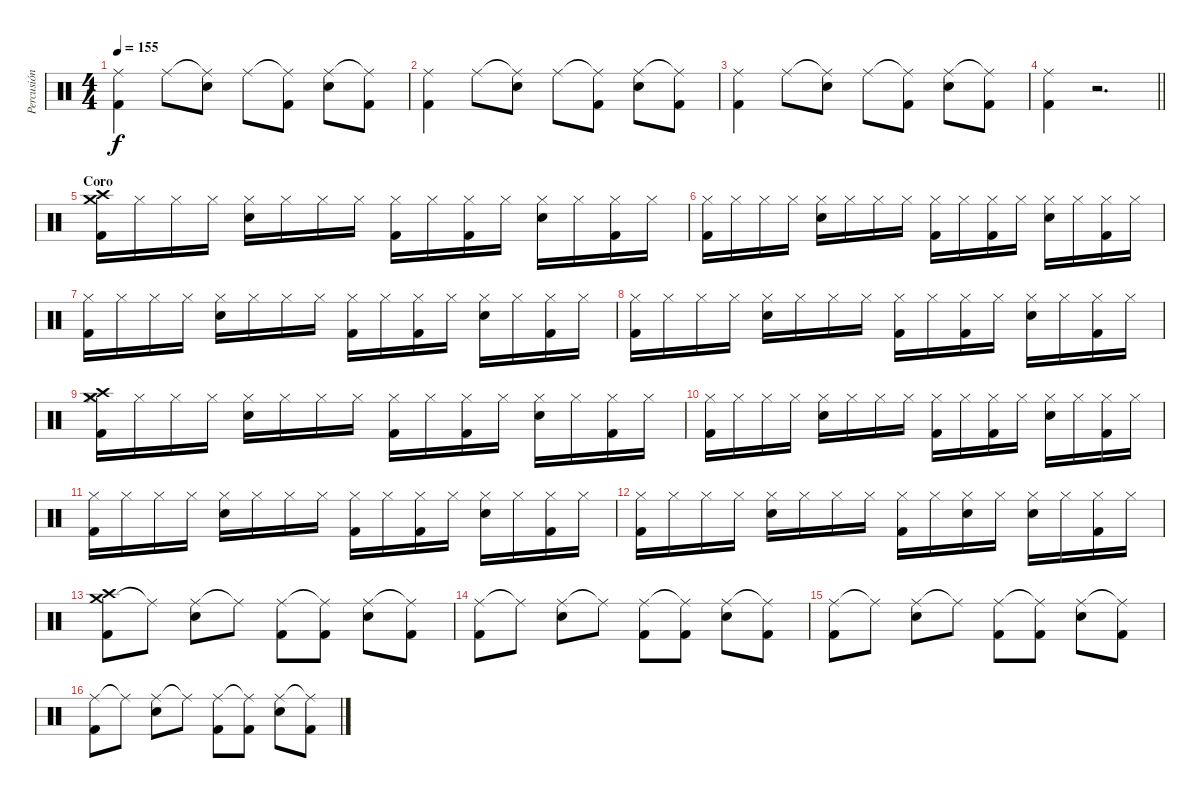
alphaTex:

\track ("Percusión" "Percusión") {instrument percussion}
\staff {score}
\articulation defaults
\ts (4 4)
\tempo 155
\clef neutral
\ks c
("Ride (middle)" "Kick (hit) 2").4{dy f} "Ride (middle)".8 ("Ride (middle)"{t} "Electric Snare (hit)").8 "Ride (middle)".8 ("Ride (middle)"{t} "Kick (hit) 2").8 ("Ride (middle)" "Electric Snare (hit)").8 ("Ride (middle)"{t} "Kick (hit) 2").8 |
("Ride (middle)" "Kick (hit) 2").4 "Ride (middle)".8 ("Ride (middle)"{t} "Electric Snare (hit)").8 "Ride (middle)".8 ("Ride (middle)"{t} "Kick (hit) 2").8 ("Ride (middle)" "Electric Snare (hit)").8 ("Ride (middle)"{t} "Kick (hit) 2").8 |
("Ride (middle)" "Kick (hit) 2").4 "Ride (middle)".8 ("Ride (middle)"{t} "Electric Snare (hit)").8 "Ride (middle)".8 ("Ride (middle)"{t} "Kick (hit) 2").8 ("Ride (middle)" "Electric Snare (hit)").8 ("Ride (middle)"{t} "Kick (hit) 2").8 |
\barLineRight lightlight
("Ride (middle)" "Kick (hit) 2").4 r.2{d} |
\section ("" "Coro")
("Crash high (hit)" "Crash medium (hit)" "Kick (hit) 2").16 "Hi-Hat (closed)".16 "Hi-Hat (closed)".16 "Hi-Hat (closed)".16 ("Hi-Hat (closed)" "Electric Snare (hit)").16 "Hi-Hat (closed)".16 "Hi-Hat (closed)".16 "Hi-Hat (closed)".16 ("Hi-Hat (closed)" "Kick (hit) 2").16 "Hi-Hat (closed)".16 ("Hi-Hat (closed)" "Kick (hit) 2").16 "Hi-Hat (closed)".16 ("Hi-Hat (closed)" "Electric Snare (hit)").16 "Hi-Hat (closed)".16 ("Hi-Hat (closed)" "Kick (hit) 2").16 "Hi-Hat (closed)".16 |
("Hi-Hat (closed)" "Kick (hit) 2").16 "Hi-Hat (closed)".16 "Hi-Hat (closed)".16 "Hi-Hat (closed)".16 ("Hi-Hat (closed)" "Electric Snare (hit)").16 "Hi-Hat (closed)".16 "Hi-Hat (closed)".16 "Hi-Hat (closed)".16 ("Hi-Hat (closed)" "Kick (hit) 2").16 "Hi-Hat (closed)".16 ("Hi-Hat (closed)" "Kick (hit) 2").16 "Hi-Hat (closed)".16 ("Hi-Hat (closed)" "Electric Snare (hit)").16 "Hi-Hat (closed)".16 ("Hi-Hat (closed)" "Kick (hit) 2").16 "Hi-Hat (closed)".16 |
("Hi-Hat (closed)" "Kick (hit) 2").16 "Hi-Hat (closed)".16 "Hi-Hat (closed)".16 "Hi-Hat (closed)".16 ("Hi-Hat (closed)" "Electric Snare (hit)").16 "Hi-Hat (closed)".16 "Hi-Hat (closed)".16 "Hi-Hat (closed)".16 ("Hi-Hat (closed)" "Kick (hit) 2").16 "Hi-Hat (closed)".16 ("Hi-Hat (closed)" "Kick (hit) 2").16 "Hi-Hat (closed)".16 ("Hi-Hat (closed)" "Electric Snare (hit)").16 "Hi-Hat (closed)".16 ("Hi-Hat (closed)" "Kick (hit) 2").16 "Hi-Hat (closed)".16 |
("Hi-Hat (closed)" "Kick (hit) 2").16 "Hi-Hat (closed)".16 "Hi-Hat (closed)".16 "Hi-Hat (closed)".16 ("Hi-Hat (closed)" "Electric Snare (hit)").16 "Hi-Hat (closed)".16 "Hi-Hat (closed)".16 "Hi-Hat (closed)".16 ("Hi-Hat (closed)" "Kick (hit) 2").16 "Hi-Hat (closed)".16 ("Hi-Hat (closed)" "Kick (hit) 2").16 "Hi-Hat (closed)".16 ("Hi-Hat (closed)" "Electric Snare (hit)").16 "Hi-Hat (closed)".16 ("Hi-Hat (closed)" "Kick (hit) 2").16 "Hi-Hat (closed)".16 |
("Crash medium (hit)" "Hi-Hat (closed)" "Crash high (hit)" "Kick (hit) 2").16 "Hi-Hat (closed)".16 "Hi-Hat (closed)".16 "Hi-Hat (closed)".16 ("Hi-Hat (closed)" "Electric Snare (hit)").16 "Hi-Hat (closed)".16 "Hi-Hat (closed)".16 "Hi-Hat (closed)".16 ("Hi-Hat (closed)" "Kick (hit) 2").16 "Hi-Hat (closed)".16 ("Hi-Hat (closed)" "Kick (hit) 2").16 "Hi-Hat (closed)".16 ("Hi-Hat (closed)" "Electric Snare (hit)").16 "Hi-Hat (closed)".16 ("Hi-Hat (closed)" "Kick (hit) 2").16 "Hi-Hat (closed)".16 |
("Hi-Hat (closed)" "Kick (hit) 2").16 "Hi-Hat (closed)".16 "Hi-Hat (closed)".16 "Hi-Hat (closed)".16 ("Hi-Hat (closed)" "Electric Snare (hit)").16 "Hi-Hat (closed)".16 "Hi-Hat (closed)".16 "Hi-Hat (closed)".16 ("Hi-Hat (closed)" "Kick (hit) 2").16 "Hi-Hat (closed)".16 ("Hi-Hat (closed)" "Kick (hit) 2").16 "Hi-Hat (closed)".16 ("Hi-Hat (closed)" "Electric Snare (hit)").16 "Hi-Hat (closed)".16 ("Hi-Hat (closed)" "Kick (hit) 2").16 "Hi-Hat (closed)".16 |
("Hi-Hat (closed)" "Kick (hit) 2").16 "Hi-Hat (closed)".16 "Hi-Hat (closed)".16 "Hi-Hat (closed)".16 ("Hi-Hat (closed)" "Electric Snare (hit)").16 "Hi-Hat (closed)".16 "Hi-Hat (closed)".16 "Hi-Hat (closed)".16 ("Hi-Hat (closed)" "Kick (hit) 2").16 "Hi-Hat (closed)".16 ("Hi-Hat (closed)" "Kick (hit) 2").16 "Hi-Hat (closed)".16 ("Hi-Hat (closed)" "Electric Snare (hit)").16 "Hi-Hat (closed)".16 ("Hi-Hat (closed)" "Kick (hit) 2").16 "Hi-Hat (closed)".16 |
("Hi-Hat (closed)" "Kick (hit) 2").16 "Hi-Hat (closed)".16 "Hi-Hat (closed)".16 "Hi-Hat (closed)".16 ("Hi-Hat (closed)" "Electric Snare (hit)").16 "Hi-Hat (closed)".16 "Hi-Hat (closed)".16 "Hi-Hat (closed)".16 ("Hi-Hat (closed)" "Kick (hit) 2").16 "Hi-Hat (closed)".16 ("Hi-Hat (closed)" "Electric Snare (hit)").16 "Hi-Hat (closed)".16 ("Hi-Hat (closed)" "Electric Snare (hit)").16 "Hi-Hat (closed)".16 ("Hi-Hat (closed)" "Kick (hit) 2").16 "Hi-Hat (closed)".16 |
("Crash medium (hit)" "Crash high (hit)" "Kick (hit) 2").8 "Ride (middle)"{t}.8 ("Ride (middle)" "Electric Snare (hit)").8 "Ride (middle)"{t}.8 ("Ride (middle)" "Kick (hit) 2").8 ("Ride (middle)"{t} "Kick (hit) 2").8 ("Ride (middle)" "Electric Snare (hit)").8 ("Ride (middle)"{t} "Kick (hit) 2").8 |
("Ride (middle)" "Kick (hit) 2").8 "Ride (middle)"{t}.8 ("Ride (middle)" "Electric Snare (hit)").8 "Ride (middle)"{t}.8 ("Ride (middle)" "Kick (hit) 2").8 ("Ride (middle)"{t} "Kick (hit) 2").8 ("Ride (middle)" "Electric Snare (hit)").8 ("Ride (middle)"{t} "Kick (hit) 2").8 |
("Ride (middle)" "Kick (hit) 2").8 "Ride (middle)"{t}.8 ("Ride (middle)" "Electric Snare (hit)").8 "Ride (middle)"{t}.8 ("Ride (middle)" "Kick (hit) 2").8 ("Ride (middle)"{t} "Kick (hit) 2").8 ("Ride (middle)" "Electric Snare (hit)").8 ("Ride (middle)"{t} "Kick (hit) 2").8 |
("Ride (middle)" "Kick (hit) 2").8 "Ride (middle)"{t}.8 ("Ride (middle)" "Electric Snare (hit)").8 "Ride (middle)"{t}.8 ("Ride (middle)" "Kick (hit) 2").8 ("Ride (middle)"{t} "Kick (hit) 2").8 ("Ride (middle)" "Electric Snare (hit)").8 ("Ride (middle)"{t} "Kick (hit) 2").8
